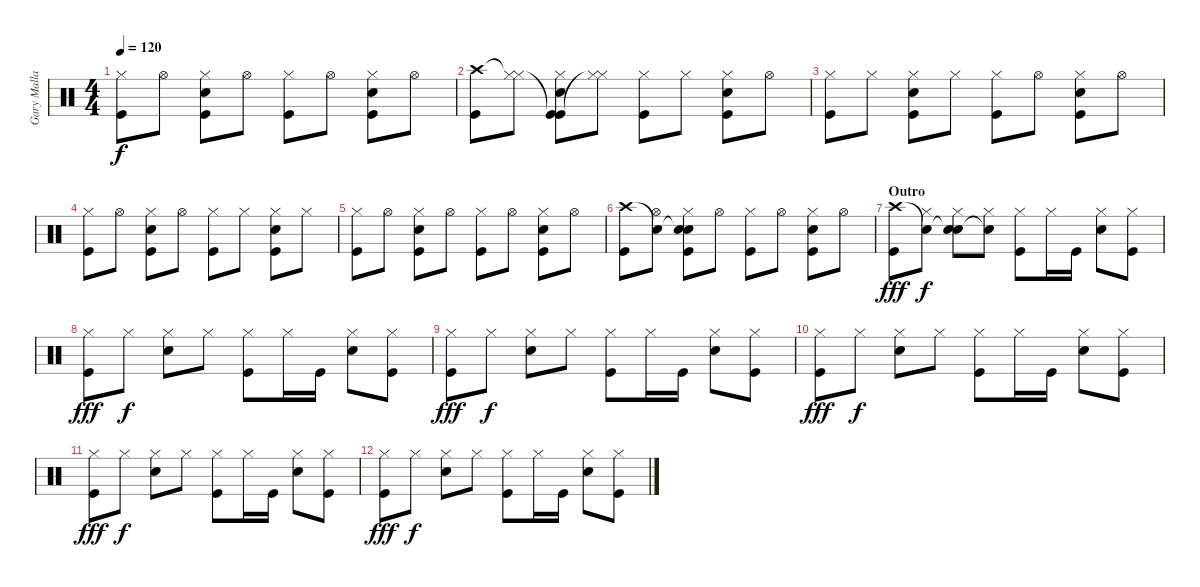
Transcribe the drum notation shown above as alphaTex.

\track ("Gary Mallaber" "Gary Malla") {instrument percussion}
\staff {score}
\articulation defaults
\ts (4 4)
\tempo 120
\clef neutral
\ks c
("Hi-Hat (closed)" "Kick (hit)").8{dy f} "Hi-Hat (open)".8 ("Hi-Hat (closed)" "Snare (hit) 2" "Kick (hit)").8 "Hi-Hat (open)".8 ("Hi-Hat (closed)" "Kick (hit)").8 "Hi-Hat (open)".8 ("Hi-Hat (closed)" "Snare (hit) 2" "Kick (hit)").8 "Hi-Hat (open)".8 |
("Crash high (hit)" "Kick (hit)").8 ("Hi-Hat (closed)"{t} "Hi-Hat (closed)").8 ("Kick (hit)"{t} "Hi-Hat (closed)" "Snare (hit) 2" "Kick (hit)").8 ("Hi-Hat (closed)"{t} "Hi-Hat (closed)").8 ("Hi-Hat (closed)" "Kick (hit)").8 "Hi-Hat (closed)".8 ("Hi-Hat (closed)" "Snare (hit) 2" "Kick (hit)").8 "Hi-Hat (open)".8 |
("Hi-Hat (closed)" "Kick (hit)").8 "Hi-Hat (closed)".8 ("Hi-Hat (closed)" "Snare (hit) 2" "Kick (hit)").8 "Hi-Hat (closed)".8 ("Hi-Hat (closed)" "Kick (hit)").8 "Hi-Hat (open)".8 ("Hi-Hat (closed)" "Snare (hit) 2" "Kick (hit)").8 "Hi-Hat (open)".8 |
("Hi-Hat (closed)" "Kick (hit)").8 "Hi-Hat (open)".8 ("Hi-Hat (closed)" "Snare (hit) 2" "Kick (hit)").8 "Hi-Hat (open)".8 ("Hi-Hat (closed)" "Kick (hit)").8 "Hi-Hat (closed)".8 ("Hi-Hat (closed)" "Snare (hit) 2" "Kick (hit)").8 "Hi-Hat (closed)".8 |
("Hi-Hat (closed)" "Kick (hit)").8 "Hi-Hat (open)".8 ("Hi-Hat (closed)" "Snare (hit) 2" "Kick (hit)").8 "Hi-Hat (open)".8 ("Hi-Hat (closed)" "Kick (hit)").8 "Hi-Hat (open)".8 ("Hi-Hat (closed)" "Snare (hit) 2" "Kick (hit)").8 "Hi-Hat (open)".8 |
("Crash high (hit)" "Kick (hit)").8 ("Snare (hit)"{t} "Hi-Hat (open)").8 ("Snare (hit)"{t} "Hi-Hat (closed)" "Snare (hit) 2" "Kick (hit)").8 "Hi-Hat (open)".8 ("Hi-Hat (closed)" "Kick (hit)").8 "Hi-Hat (open)".8 ("Hi-Hat (closed)" "Snare (hit) 2" "Kick (hit)").8 "Hi-Hat (open)".8 |
\section ("" "Outro")
("Crash high (hit)" "Kick (hit)").8{dy fff} ("Snare (hit)"{t} "Hi-Hat (closed)").8{dy f} ("Snare (hit)"{t} "Hi-Hat (closed)" "Snare (hit) 2").8 ("Snare (hit)"{t} "Hi-Hat (closed)").8 ("Hi-Hat (closed)" "Kick (hit)").8 "Hi-Hat (closed)".16 "Kick (hit)".16 ("Hi-Hat (closed)" "Snare (hit) 2").8 ("Hi-Hat (closed)" "Kick (hit)").8 |
("Hi-Hat (closed)" "Kick (hit)").8{dy fff} "Hi-Hat (closed)".8{dy f} ("Hi-Hat (closed)" "Snare (hit) 2").8 "Hi-Hat (closed)".8 ("Hi-Hat (closed)" "Kick (hit)").8 "Hi-Hat (closed)".16 "Kick (hit)".16 ("Hi-Hat (closed)" "Snare (hit) 2").8 ("Hi-Hat (closed)" "Kick (hit)").8 |
("Hi-Hat (closed)" "Kick (hit)").8{dy fff} "Hi-Hat (closed)".8{dy f} ("Hi-Hat (closed)" "Snare (hit) 2").8 "Hi-Hat (closed)".8 ("Hi-Hat (closed)" "Kick (hit)").8 "Hi-Hat (closed)".16 "Kick (hit)".16 ("Hi-Hat (closed)" "Snare (hit) 2").8 ("Hi-Hat (closed)" "Kick (hit)").8 |
("Hi-Hat (closed)" "Kick (hit)").8{dy fff} "Hi-Hat (closed)".8{dy f} ("Hi-Hat (closed)" "Snare (hit) 2").8 "Hi-Hat (closed)".8 ("Hi-Hat (closed)" "Kick (hit)").8 "Hi-Hat (closed)".16 "Kick (hit)".16 ("Hi-Hat (closed)" "Snare (hit) 2").8 ("Hi-Hat (closed)" "Kick (hit)").8 |
("Hi-Hat (closed)" "Kick (hit)").8{dy fff} "Hi-Hat (closed)".8{dy f} ("Hi-Hat (closed)" "Snare (hit) 2").8 "Hi-Hat (closed)".8 ("Hi-Hat (closed)" "Kick (hit)").8 "Hi-Hat (closed)".16 "Kick (hit)".16 ("Hi-Hat (closed)" "Snare (hit) 2").8 ("Hi-Hat (closed)" "Kick (hit)").8 |
("Hi-Hat (closed)" "Kick (hit)").8{dy fff} "Hi-Hat (closed)".8{dy f} ("Hi-Hat (closed)" "Snare (hit) 2").8 "Hi-Hat (closed)".8 ("Hi-Hat (closed)" "Kick (hit)").8 "Hi-Hat (closed)".16 "Kick (hit)".16 ("Hi-Hat (closed)" "Snare (hit) 2").8 ("Hi-Hat (closed)" "Kick (hit)").8
